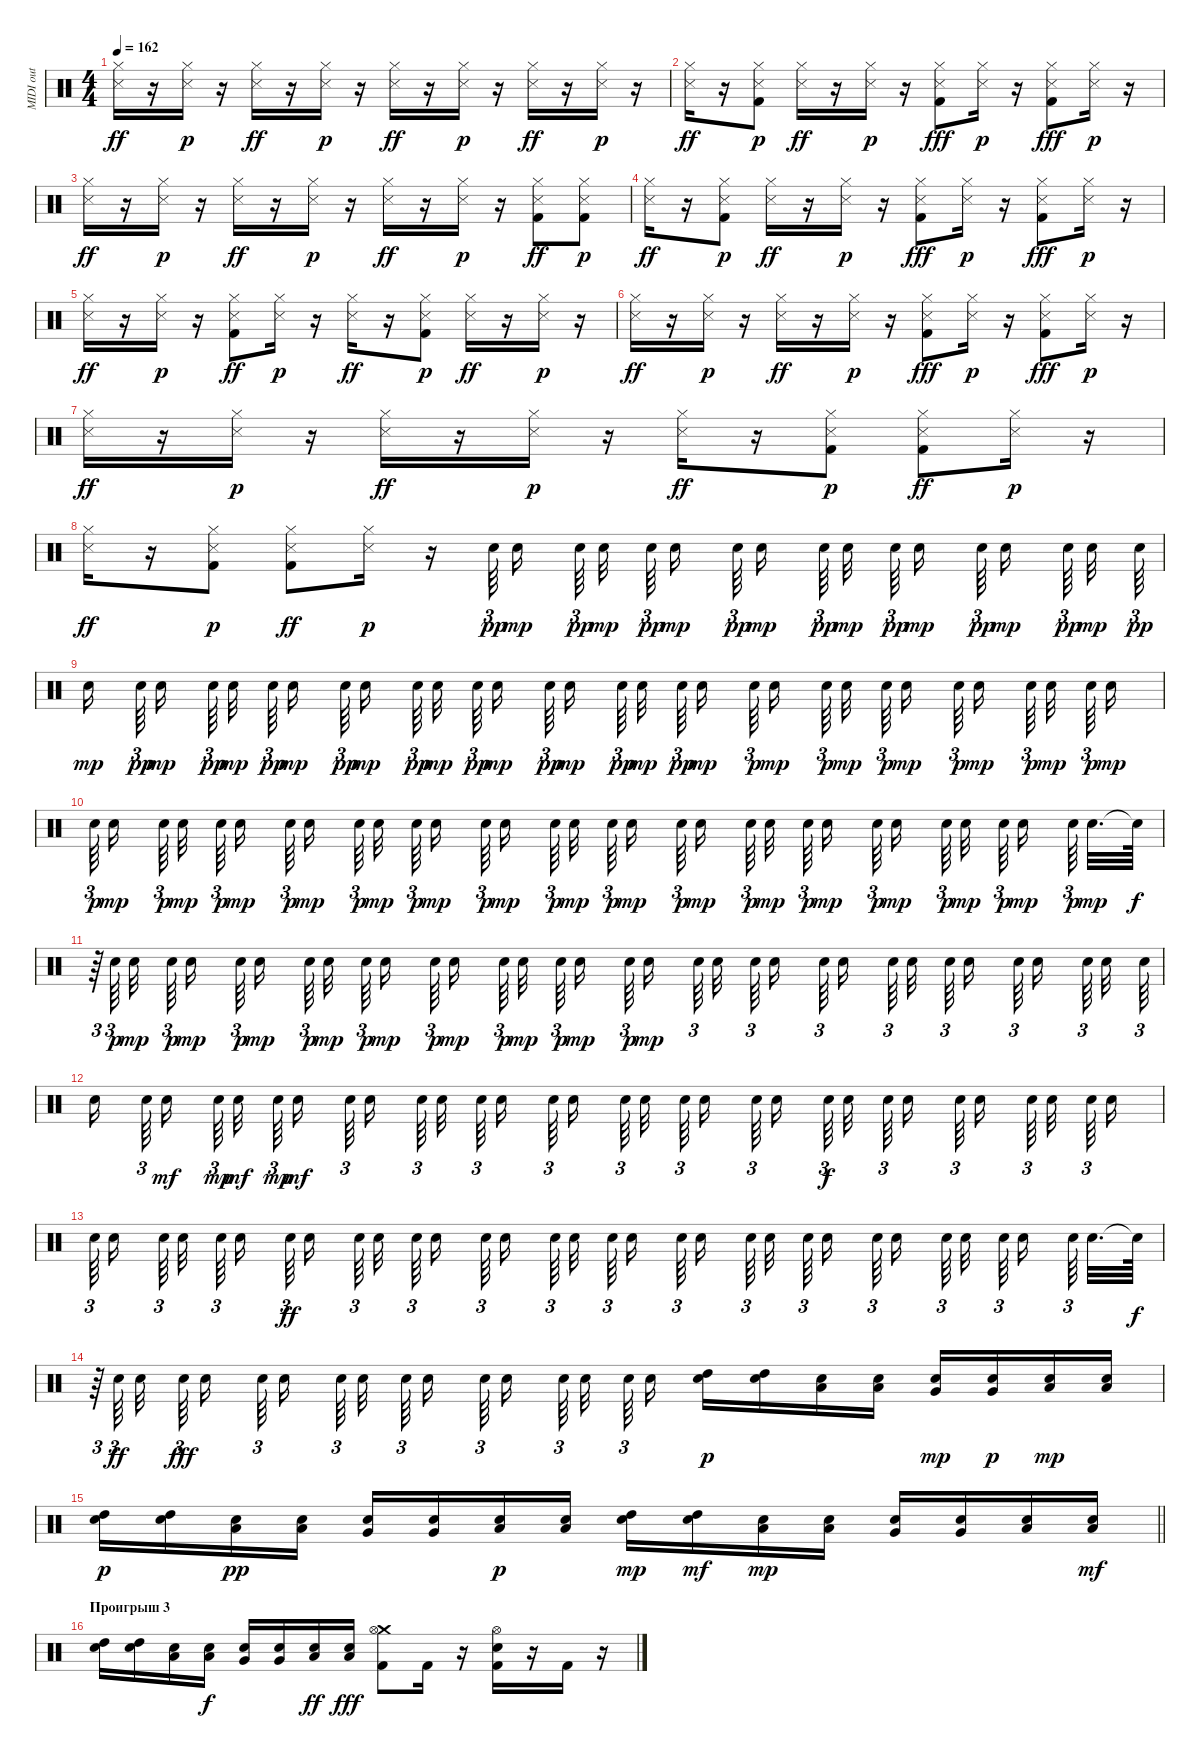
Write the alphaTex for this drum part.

\track ("MIDI out" "MIDI out") {instrument percussion}
\staff {score}
\articulation defaults
\ts (4 4)
\tempo 162
\clef neutral
\ks c
("Hi-Hat (closed)" "Snare (side stick) 3").16{dy ff} r.16 ("Hi-Hat (closed)" "Snare (side stick) 3").16{dy p} r.16 ("Hi-Hat (closed)" "Snare (side stick) 3").16{dy ff} r.16 ("Hi-Hat (closed)" "Snare (side stick) 3").16{dy p} r.16 ("Hi-Hat (closed)" "Snare (side stick) 3").16{dy ff} r.16 ("Hi-Hat (closed)" "Snare (side stick) 3").16{dy p} r.16 ("Hi-Hat (closed)" "Snare (side stick) 3").16{dy ff} r.16 ("Hi-Hat (closed)" "Snare (side stick) 3").16{dy p} r.16 |
("Hi-Hat (closed)" "Snare (side stick) 3").16{dy ff} r.16 ("Kick (hit) 2" "Hi-Hat (closed)" "Snare (side stick) 3").8{dy p} ("Hi-Hat (closed)" "Snare (side stick) 3").16{dy ff} r.16 ("Hi-Hat (closed)" "Snare (side stick) 3").16{dy p} r.16 ("Hi-Hat (closed)" "Snare (side stick) 3" "Kick (hit) 2").8{dy fff} ("Hi-Hat (closed)" "Snare (side stick) 3").16{dy p} r.16 ("Hi-Hat (closed)" "Snare (side stick) 3" "Kick (hit) 2").8{dy fff} ("Hi-Hat (closed)" "Snare (side stick) 3").16{dy p} r.16 |
("Hi-Hat (closed)" "Snare (side stick) 3").16{dy ff} r.16 ("Hi-Hat (closed)" "Snare (side stick) 3").16{dy p} r.16 ("Hi-Hat (closed)" "Snare (side stick) 3").16{dy ff} r.16 ("Hi-Hat (closed)" "Snare (side stick) 3").16{dy p} r.16 ("Hi-Hat (closed)" "Snare (side stick) 3").16{dy ff} r.16 ("Hi-Hat (closed)" "Snare (side stick) 3").16{dy p} r.16 ("Kick (hit) 2" "Hi-Hat (closed)" "Snare (side stick) 3").8{dy ff} ("Kick (hit) 2" "Hi-Hat (closed)" "Snare (side stick) 3").8{dy p} |
("Hi-Hat (closed)" "Snare (side stick) 3").16{dy ff} r.16 ("Kick (hit) 2" "Hi-Hat (closed)" "Snare (side stick) 3").8{dy p} ("Hi-Hat (closed)" "Snare (side stick) 3").16{dy ff} r.16 ("Hi-Hat (closed)" "Snare (side stick) 3").16{dy p} r.16 ("Hi-Hat (closed)" "Snare (side stick) 3" "Kick (hit) 2").8{dy fff} ("Hi-Hat (closed)" "Snare (side stick) 3").16{dy p} r.16 ("Hi-Hat (closed)" "Snare (side stick) 3" "Kick (hit) 2").8{dy fff} ("Hi-Hat (closed)" "Snare (side stick) 3").16{dy p} r.16 |
("Hi-Hat (closed)" "Snare (side stick) 3").16{dy ff} r.16 ("Hi-Hat (closed)" "Snare (side stick) 3").16{dy p} r.16 ("Kick (hit) 2" "Hi-Hat (closed)" "Snare (side stick) 3").8{dy ff} ("Hi-Hat (closed)" "Snare (side stick) 3").16{dy p} r.16 ("Hi-Hat (closed)" "Snare (side stick) 3").16{dy ff} r.16 ("Kick (hit) 2" "Hi-Hat (closed)" "Snare (side stick) 3").8{dy p} ("Hi-Hat (closed)" "Snare (side stick) 3").16{dy ff} r.16 ("Hi-Hat (closed)" "Snare (side stick) 3").16{dy p} r.16 |
("Hi-Hat (closed)" "Snare (side stick) 3").16{dy ff} r.16 ("Hi-Hat (closed)" "Snare (side stick) 3").16{dy p} r.16 ("Hi-Hat (closed)" "Snare (side stick) 3").16{dy ff} r.16 ("Hi-Hat (closed)" "Snare (side stick) 3").16{dy p} r.16 ("Hi-Hat (closed)" "Snare (side stick) 3" "Kick (hit) 2").8{dy fff} ("Hi-Hat (closed)" "Snare (side stick) 3").16{dy p} r.16 ("Hi-Hat (closed)" "Snare (side stick) 3" "Kick (hit) 2").8{dy fff} ("Hi-Hat (closed)" "Snare (side stick) 3").16{dy p} r.16 |
("Hi-Hat (closed)" "Snare (side stick) 3").16{dy ff} r.16 ("Hi-Hat (closed)" "Snare (side stick) 3").16{dy p} r.16 ("Hi-Hat (closed)" "Snare (side stick) 3").16{dy ff} r.16 ("Hi-Hat (closed)" "Snare (side stick) 3").16{dy p} r.16 ("Hi-Hat (closed)" "Snare (side stick) 3").16{dy ff} r.16 ("Kick (hit) 2" "Hi-Hat (closed)" "Snare (side stick) 3").8{dy p} ("Kick (hit) 2" "Hi-Hat (closed)" "Snare (side stick) 3").8{dy ff} ("Hi-Hat (closed)" "Snare (side stick) 3").16{dy p} r.16 |
("Snare (side stick) 3" "Hi-Hat (closed)").16{dy ff} r.16 ("Kick (hit) 2" "Snare (side stick) 3" "Hi-Hat (closed)").8{dy p} ("Kick (hit) 2" "Hi-Hat (closed)" "Snare (side stick) 3").8{dy ff} ("Hi-Hat (closed)" "Snare (side stick) 3").16{dy p} r.16 "Electric Snare (hit)".64{tu (3 2) dy pp beam splitsecondary} "Snare (hit) 2".16{dy mp beam splitsecondary} "Electric Snare (hit)".64{tu (3 2) dy pp beam splitsecondary} "Snare (hit) 2".32{dy mp beam splitsecondary} "Electric Snare (hit)".64{tu (3 2) dy pp beam splitsecondary} "Snare (hit) 2".16{dy mp beam splitsecondary} "Electric Snare (hit)".64{tu (3 2) dy pp} "Snare (hit) 2".16{dy mp} "Electric Snare (hit)".64{tu (3 2) dy pp beam splitsecondary} "Snare (hit) 2".32{dy mp beam splitsecondary} "Electric Snare (hit)".64{tu (3 2) dy pp beam splitsecondary} "Snare (hit) 2".16{dy mp beam splitsecondary} "Electric Snare (hit)".64{tu (3 2) dy pp beam splitsecondary} "Snare (hit) 2".16{dy mp beam splitsecondary} "Electric Snare (hit)".64{tu (3 2) dy pp beam splitsecondary} "Snare (hit) 2".32{dy mp} "Electric Snare (hit)".64{tu (3 2) dy pp} |
"Snare (hit) 2".16{dy mp beam splitsecondary} "Electric Snare (hit)".64{tu (3 2) dy pp beam splitsecondary} "Snare (hit) 2".16{dy mp beam splitsecondary} "Electric Snare (hit)".64{tu (3 2) dy pp beam splitsecondary} "Snare (hit) 2".32{dy mp beam splitsecondary} "Electric Snare (hit)".64{tu (3 2) dy pp} "Snare (hit) 2".16{dy mp} "Electric Snare (hit)".64{tu (3 2) dy pp beam splitsecondary} "Snare (hit) 2".16{dy mp beam splitsecondary} "Electric Snare (hit)".64{tu (3 2) dy pp beam splitsecondary} "Snare (hit) 2".32{dy mp beam splitsecondary} "Electric Snare (hit)".64{tu (3 2) dy pp beam splitsecondary} "Snare (hit) 2".16{dy mp beam splitsecondary} "Electric Snare (hit)".64{tu (3 2) dy pp} "Snare (hit) 2".16{dy mp} "Electric Snare (hit)".64{tu (3 2) dy pp beam splitsecondary} "Snare (hit) 2".32{dy mp beam splitsecondary} "Electric Snare (hit)".64{tu (3 2) dy pp beam splitsecondary} "Snare (hit) 2".16{dy mp beam splitsecondary} "Electric Snare (hit)".64{tu (3 2) dy p beam splitsecondary} "Snare (hit) 2".16{dy mp beam splitsecondary} "Electric Snare (hit)".64{tu (3 2) dy p beam splitsecondary} "Snare (hit) 2".32{dy mp} "Electric Snare (hit)".64{tu (3 2) dy p} "Snare (hit) 2".16{dy mp beam splitsecondary} "Electric Snare (hit)".64{tu (3 2) dy p beam splitsecondary} "Snare (hit) 2".16{dy mp beam splitsecondary} "Electric Snare (hit)".64{tu (3 2) dy p beam splitsecondary} "Snare (hit) 2".32{dy mp beam splitsecondary} "Electric Snare (hit)".64{tu (3 2) dy p} "Snare (hit) 2".16{dy mp} |
"Electric Snare (hit)".64{tu (3 2) dy p beam splitsecondary} "Snare (hit) 2".16{dy mp beam splitsecondary} "Electric Snare (hit)".64{tu (3 2) dy p beam splitsecondary} "Snare (hit) 2".32{dy mp beam splitsecondary} "Electric Snare (hit)".64{tu (3 2) dy p beam splitsecondary} "Snare (hit) 2".16{dy mp beam splitsecondary} "Electric Snare (hit)".64{tu (3 2) dy p} "Snare (hit) 2".16{dy mp} "Electric Snare (hit)".64{tu (3 2) dy p beam splitsecondary} "Snare (hit) 2".32{dy mp beam splitsecondary} "Electric Snare (hit)".64{tu (3 2) dy p beam splitsecondary} "Snare (hit) 2".16{dy mp beam splitsecondary} "Electric Snare (hit)".64{tu (3 2) dy p beam splitsecondary} "Snare (hit) 2".16{dy mp beam splitsecondary} "Electric Snare (hit)".64{tu (3 2) dy p beam splitsecondary} "Snare (hit) 2".32{dy mp} "Electric Snare (hit)".64{tu (3 2) dy p} "Snare (hit) 2".16{dy mp beam splitsecondary} "Electric Snare (hit)".64{tu (3 2) dy p beam splitsecondary} "Snare (hit) 2".16{dy mp beam splitsecondary} "Electric Snare (hit)".64{tu (3 2) dy p beam splitsecondary} "Snare (hit) 2".32{dy mp beam splitsecondary} "Electric Snare (hit)".64{tu (3 2) dy p} "Snare (hit) 2".16{dy mp} "Electric Snare (hit)".64{tu (3 2) dy p beam splitsecondary} "Snare (hit) 2".16{dy mp beam splitsecondary} "Electric Snare (hit)".64{tu (3 2) dy p beam splitsecondary} "Snare (hit) 2".32{dy mp beam splitsecondary} "Electric Snare (hit)".64{tu (3 2) dy p beam splitsecondary} "Snare (hit) 2".16{dy mp beam splitsecondary} "Electric Snare (hit)".64{tu (3 2) dy p beam splitsecondary} "Snare (hit) 2".32{d dy mp} "Snare (hit)"{t}.64{dy f} |
r.64{tu (3 2)} "Electric Snare (hit)".64{tu (3 2) dy p beam splitsecondary} "Snare (hit) 2".32{dy mp beam splitsecondary} "Electric Snare (hit)".64{tu (3 2) dy p beam splitsecondary} "Snare (hit) 2".16{dy mp beam splitsecondary} "Electric Snare (hit)".64{tu (3 2) dy p beam splitsecondary} "Snare (hit) 2".16{dy mp beam splitsecondary} "Electric Snare (hit)".64{tu (3 2) dy p beam splitsecondary} "Snare (hit) 2".32{dy mp} "Electric Snare (hit)".64{tu (3 2) dy p} "Snare (hit) 2".16{dy mp beam splitsecondary} "Electric Snare (hit)".64{tu (3 2) dy p beam splitsecondary} "Snare (hit) 2".16{dy mp beam splitsecondary} "Electric Snare (hit)".64{tu (3 2) dy p beam splitsecondary} "Snare (hit) 2".32{dy mp beam splitsecondary} "Electric Snare (hit)".64{tu (3 2) dy p} "Snare (hit) 2".16{dy mp} "Electric Snare (hit)".64{tu (3 2) dy p beam splitsecondary} "Snare (hit) 2".16{dy mp beam splitsecondary} "Electric Snare (hit)".64{tu (3 2) beam splitsecondary} "Snare (hit) 2".32{beam splitsecondary} "Electric Snare (hit)".64{tu (3 2) beam splitsecondary} "Snare (hit) 2".16{beam splitsecondary} "Electric Snare (hit)".64{tu (3 2)} "Snare (hit) 2".16 "Electric Snare (hit)".64{tu (3 2) beam splitsecondary} "Snare (hit) 2".32{beam splitsecondary} "Electric Snare (hit)".64{tu (3 2) beam splitsecondary} "Snare (hit) 2".16{beam splitsecondary} "Electric Snare (hit)".64{tu (3 2) beam splitsecondary} "Snare (hit) 2".16{beam splitsecondary} "Electric Snare (hit)".64{tu (3 2) beam splitsecondary} "Snare (hit) 2".32 "Electric Snare (hit)".64{tu (3 2)} |
"Snare (hit) 2".16{beam splitsecondary} "Electric Snare (hit)".64{tu (3 2) beam splitsecondary} "Snare (hit) 2".16{dy mf beam splitsecondary} "Electric Snare (hit)".64{tu (3 2) dy mp beam splitsecondary} "Snare (hit) 2".32{dy mf beam splitsecondary} "Electric Snare (hit)".64{tu (3 2) dy mp} "Snare (hit) 2".16{dy mf} "Electric Snare (hit)".64{tu (3 2) beam splitsecondary} "Snare (hit) 2".16{beam splitsecondary} "Electric Snare (hit)".64{tu (3 2) beam splitsecondary} "Snare (hit) 2".32{beam splitsecondary} "Electric Snare (hit)".64{tu (3 2) beam splitsecondary} "Snare (hit) 2".16{beam splitsecondary} "Electric Snare (hit)".64{tu (3 2)} "Snare (hit) 2".16 "Electric Snare (hit)".64{tu (3 2) beam splitsecondary} "Snare (hit) 2".32{beam splitsecondary} "Electric Snare (hit)".64{tu (3 2) beam splitsecondary} "Snare (hit) 2".16{beam splitsecondary} "Electric Snare (hit)".64{tu (3 2) beam splitsecondary} "Snare (hit) 2".16{beam splitsecondary} "Electric Snare (hit)".64{tu (3 2) dy f beam splitsecondary} "Snare (hit) 2".32 "Electric Snare (hit)".64{tu (3 2)} "Snare (hit) 2".16{beam splitsecondary} "Electric Snare (hit)".64{tu (3 2) beam splitsecondary} "Snare (hit) 2".16{beam splitsecondary} "Electric Snare (hit)".64{tu (3 2) beam splitsecondary} "Snare (hit) 2".32{beam splitsecondary} "Electric Snare (hit)".64{tu (3 2)} "Snare (hit) 2".16 |
"Electric Snare (hit)".64{tu (3 2) beam splitsecondary} "Snare (hit) 2".16{beam splitsecondary} "Electric Snare (hit)".64{tu (3 2) beam splitsecondary} "Snare (hit) 2".32{beam splitsecondary} "Electric Snare (hit)".64{tu (3 2) beam splitsecondary} "Snare (hit) 2".16{beam splitsecondary} "Electric Snare (hit)".64{tu (3 2) dy ff} "Snare (hit) 2".16 "Electric Snare (hit)".64{tu (3 2) beam splitsecondary} "Snare (hit) 2".32{beam splitsecondary} "Electric Snare (hit)".64{tu (3 2) beam splitsecondary} "Snare (hit) 2".16{beam splitsecondary} "Electric Snare (hit)".64{tu (3 2) beam splitsecondary} "Snare (hit) 2".16{beam splitsecondary} "Electric Snare (hit)".64{tu (3 2) beam splitsecondary} "Snare (hit) 2".32 "Electric Snare (hit)".64{tu (3 2)} "Snare (hit) 2".16{beam splitsecondary} "Electric Snare (hit)".64{tu (3 2) beam splitsecondary} "Snare (hit) 2".16{beam splitsecondary} "Electric Snare (hit)".64{tu (3 2) beam splitsecondary} "Snare (hit) 2".32{beam splitsecondary} "Electric Snare (hit)".64{tu (3 2)} "Snare (hit) 2".16 "Electric Snare (hit)".64{tu (3 2) beam splitsecondary} "Snare (hit) 2".16{beam splitsecondary} "Electric Snare (hit)".64{tu (3 2) beam splitsecondary} "Snare (hit) 2".32{beam splitsecondary} "Electric Snare (hit)".64{tu (3 2) beam splitsecondary} "Snare (hit) 2".16{beam splitsecondary} "Electric Snare (hit)".64{tu (3 2) beam splitsecondary} "Snare (hit) 2".32{d} "Snare (hit)"{t}.64{dy f} |
r.64{tu (3 2)} "Electric Snare (hit)".64{tu (3 2) dy ff beam splitsecondary} "Snare (hit) 2".32{beam splitsecondary} "Electric Snare (hit)".64{tu (3 2) dy fff beam splitsecondary} "Snare (hit) 2".16{beam splitsecondary} "Electric Snare (hit)".64{tu (3 2) beam splitsecondary} "Snare (hit) 2".16{beam splitsecondary} "Electric Snare (hit)".64{tu (3 2) beam splitsecondary} "Snare (hit) 2".32 "Electric Snare (hit)".64{tu (3 2)} "Snare (hit) 2".16{beam splitsecondary} "Electric Snare (hit)".64{tu (3 2) beam splitsecondary} "Snare (hit) 2".16{beam splitsecondary} "Electric Snare (hit)".64{tu (3 2) beam splitsecondary} "Snare (hit) 2".32{beam splitsecondary} "Electric Snare (hit)".64{tu (3 2)} "Snare (hit) 2".16 ("High Tom (hit)" "Electric Snare (hit)").16{dy p} ("High Tom (hit)" "Electric Snare (hit)").16 ("Electric Snare (hit)" "Low Tom (hit)").16 ("Low Tom (hit)" "Electric Snare (hit)").16 ("Electric Snare (hit)" "Very Low Tom (hit)").16{dy mp} ("Electric Snare (hit)" "Very Low Tom (hit)").16{dy p} ("Electric Snare (hit)" "Low Floor Tom (hit)").16{dy mp} ("Low Floor Tom (hit)" "Electric Snare (hit)").16 |
\barLineRight lightlight
("High Tom (hit)" "Electric Snare (hit)").16{dy p} ("Electric Snare (hit)" "High Tom (hit)").16 ("Electric Snare (hit)" "Low Tom (hit)").16{dy pp} ("Low Tom (hit)" "Electric Snare (hit)").16 ("Very Low Tom (hit)" "Electric Snare (hit)").16 ("Very Low Tom (hit)" "Electric Snare (hit)").16 ("Electric Snare (hit)" "Low Floor Tom (hit)").16{dy p} ("Electric Snare (hit)" "Low Floor Tom (hit)").16 ("Electric Snare (hit)" "High Tom (hit)").16{dy mp} ("High Tom (hit)" "Electric Snare (hit)").16{dy mf} ("Electric Snare (hit)" "Low Tom (hit)").16{dy mp} ("Low Tom (hit)" "Electric Snare (hit)").16 ("Very Low Tom (hit)" "Electric Snare (hit)").16 ("Very Low Tom (hit)" "Electric Snare (hit)").16 ("Electric Snare (hit)" "Low Floor Tom (hit)").16 ("Low Floor Tom (hit)" "Electric Snare (hit)").16{dy mf} |
\section ("" "Проигрыш 3")
("High Tom (hit)" "Electric Snare (hit)").16 ("Electric Snare (hit)" "High Tom (hit)").16 ("Low Tom (hit)" "Electric Snare (hit)").16 ("Electric Snare (hit)" "Low Tom (hit)").16{dy f} ("Very Low Tom (hit)" "Electric Snare (hit)").16 ("Electric Snare (hit)" "Very Low Tom (hit)").16 ("Low Floor Tom (hit)" "Electric Snare (hit)").16{dy ff} ("Electric Snare (hit)" "Low Floor Tom (hit)").16{dy fff} ("Crash medium (hit)" "Kick (hit) 2" "Hi-Hat (open)").8 "Kick (hit) 2".16 r.16 ("Electric Snare (hit)" "Kick (hit) 2" "Hi-Hat (open)").16 r.16 "Kick (hit) 2".16 r.16
